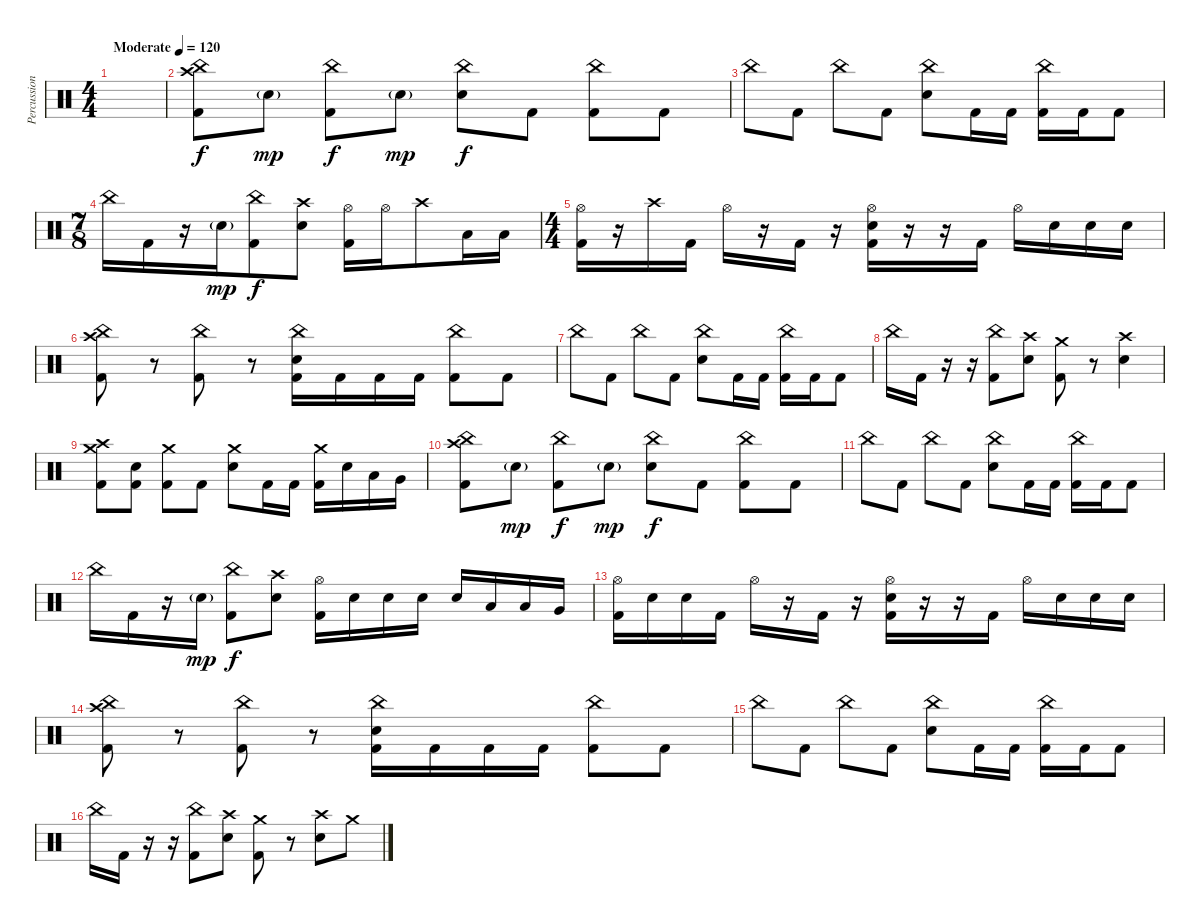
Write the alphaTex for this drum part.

\track ("Percussion" "Percussion") {instrument percussion}
\staff {score}
\articulation defaults
\ts (4 4)
\tempo (120 "Moderate")
\clef neutral
\ks c
|
("China (hit)" "Crash high (hit)" "Kick (hit) 2").8 "Electric Snare (hit)"{g}.8{dy mp} ("China (hit)" "Kick (hit) 2").8{dy f} "Electric Snare (hit)"{g}.8{dy mp} ("China (hit)" "Electric Snare (hit)").8{dy f} "Kick (hit) 2".8 ("China (hit)" "Kick (hit) 2").8 "Kick (hit) 2".8 |
"China (hit)".8 "Kick (hit) 2".8 "China (hit)".8 "Kick (hit) 2".8 ("China (hit)" "Electric Snare (hit)").8 "Kick (hit) 2".16 "Kick (hit) 2".16 ("China (hit)" "Kick (hit) 2").16 "Kick (hit) 2".16 "Kick (hit) 2".8 |
\ts (7 8)
"China (hit)".16 "Kick (hit) 2".16 r.16 "Electric Snare (hit)"{g}.16{dy mp} ("China (hit)" "Kick (hit) 2").8{dy f} ("Crash high (hit)" "Electric Snare (hit)").8 ("Hi-Hat (open)" "Kick (hit) 2").16 "Hi-Hat (open)".16 "Crash high (hit)".8 "Low Tom (hit)".16 "Low Tom (hit)".16 |
\ts (4 4)
("Hi-Hat (open)" "Kick (hit) 2").16 r.16 "Crash high (hit)".16 "Kick (hit) 2".16 "Hi-Hat (open)".16 r.16 "Kick (hit) 2".16 r.16 ("Hi-Hat (open)" "Electric Snare (hit)" "Kick (hit) 2").16 r.16 r.16 "Kick (hit) 2".16 "Hi-Hat (open)".16 "Electric Snare (hit)".16 "Electric Snare (hit)".16 "Electric Snare (hit)".16 |
("China (hit)" "Crash high (hit)" "Kick (hit) 2").8 r.8 ("China (hit)" "Kick (hit) 2").8 r.8 ("China (hit)" "Electric Snare (hit)" "Kick (hit) 2").16 "Kick (hit) 2".16 "Kick (hit) 2".16 "Kick (hit) 2".16 ("China (hit)" "Kick (hit) 2").8 "Kick (hit) 2".8 |
"China (hit)".8 "Kick (hit) 2".8 "China (hit)".8 "Kick (hit) 2".8 ("China (hit)" "Electric Snare (hit)").8 "Kick (hit) 2".16 "Kick (hit) 2".16 ("China (hit)" "Kick (hit) 2").16 "Kick (hit) 2".16 "Kick (hit) 2".8 |
"China (hit)".16 "Kick (hit) 2".16 r.16 r.16 ("China (hit)" "Kick (hit) 2").8 ("Crash high (hit)" "Electric Snare (hit)").8 ("Crash medium (hit)" "Kick (hit) 2").8 r.8 ("Crash high (hit)" "Electric Snare (hit)").4 |
("Crash medium (hit)" "Crash high (hit)" "Kick (hit) 2").8 ("Electric Snare (hit)" "Kick (hit) 2").8 ("Crash medium (hit)" "Kick (hit) 2").8 "Kick (hit) 2".8 ("Crash medium (hit)" "Electric Snare (hit)").8 "Kick (hit) 2".16 "Kick (hit) 2".16 ("Crash medium (hit)" "Kick (hit) 2").16 "Electric Snare (hit)".16 "Low Tom (hit)".16 "Very Low Tom (hit)".16 |
("China (hit)" "Crash high (hit)" "Kick (hit) 2").8 "Electric Snare (hit)"{g}.8{dy mp} ("China (hit)" "Kick (hit) 2").8{dy f} "Electric Snare (hit)"{g}.8{dy mp} ("China (hit)" "Electric Snare (hit)").8{dy f} "Kick (hit) 2".8 ("China (hit)" "Kick (hit) 2").8 "Kick (hit) 2".8 |
"China (hit)".8 "Kick (hit) 2".8 "China (hit)".8 "Kick (hit) 2".8 ("China (hit)" "Electric Snare (hit)").8 "Kick (hit) 2".16 "Kick (hit) 2".16 ("China (hit)" "Kick (hit) 2").16 "Kick (hit) 2".16 "Kick (hit) 2".8 |
"China (hit)".16 "Kick (hit) 2".16 r.16 "Electric Snare (hit)"{g}.16{dy mp} ("China (hit)" "Kick (hit) 2").8{dy f} ("Crash high (hit)" "Electric Snare (hit)").8 ("Hi-Hat (open)" "Kick (hit) 2").16 "Electric Snare (hit)".16 "Electric Snare (hit)".16 "Electric Snare (hit)".16 "Electric Snare (hit)".16 "Low Tom (hit)".16 "Low Tom (hit)".16 "Very Low Tom (hit)".16 |
("Hi-Hat (open)" "Kick (hit) 2").16 "Electric Snare (hit)".16 "Electric Snare (hit)".16 "Kick (hit) 2".16 "Hi-Hat (open)".16 r.16 "Kick (hit) 2".16 r.16 ("Hi-Hat (open)" "Electric Snare (hit)" "Kick (hit) 2").16 r.16 r.16 "Kick (hit) 2".16 "Hi-Hat (open)".16 "Electric Snare (hit)".16 "Electric Snare (hit)".16 "Electric Snare (hit)".16 |
("China (hit)" "Crash high (hit)" "Kick (hit) 2").8 r.8 ("China (hit)" "Kick (hit) 2").8 r.8 ("China (hit)" "Electric Snare (hit)" "Kick (hit) 2").16 "Kick (hit) 2".16 "Kick (hit) 2".16 "Kick (hit) 2".16 ("China (hit)" "Kick (hit) 2").8 "Kick (hit) 2".8 |
"China (hit)".8 "Kick (hit) 2".8 "China (hit)".8 "Kick (hit) 2".8 ("China (hit)" "Electric Snare (hit)").8 "Kick (hit) 2".16 "Kick (hit) 2".16 ("China (hit)" "Kick (hit) 2").16 "Kick (hit) 2".16 "Kick (hit) 2".8 |
"China (hit)".16 "Kick (hit) 2".16 r.16 r.16 ("China (hit)" "Kick (hit) 2").8 ("Crash high (hit)" "Electric Snare (hit)").8 ("Crash medium (hit)" "Kick (hit) 2").8 r.8 ("Crash high (hit)" "Electric Snare (hit)").8 "Crash medium (hit)".8
